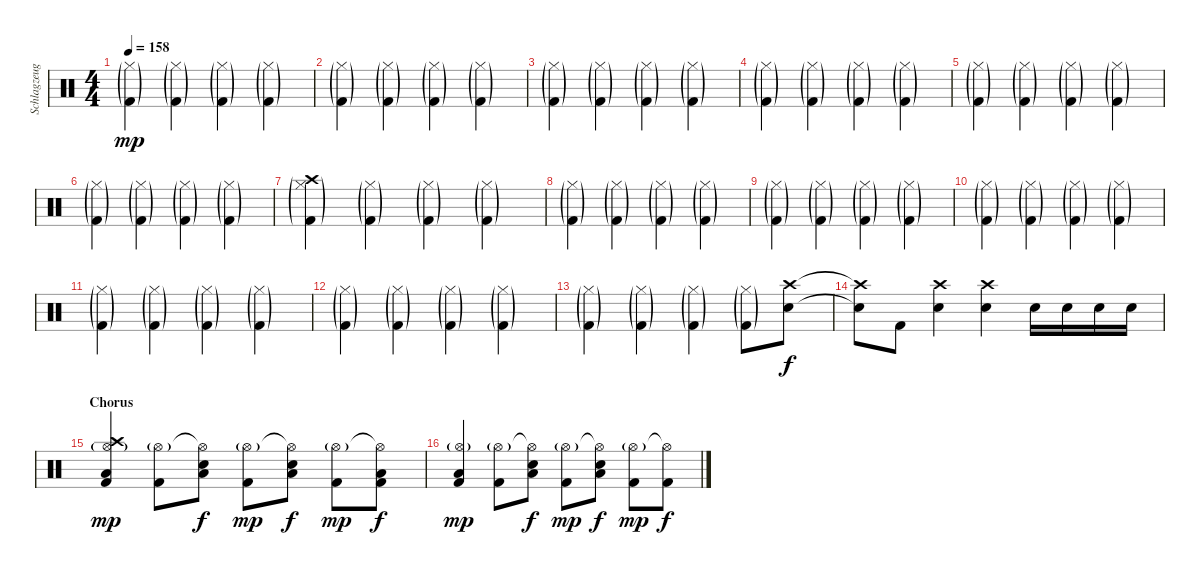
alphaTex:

\track ("Schlagzeug" "Schlagzeug") {instrument percussion}
\staff {score}
\articulation defaults
\ts (4 4)
\tempo 158
\clef neutral
\ks c
("Hi-Hat (closed)"{g} "Kick (hit) 2"{g}).4{dy mp} ("Hi-Hat (closed)"{g} "Kick (hit) 2"{g}).4 ("Hi-Hat (closed)"{g} "Kick (hit) 2"{g}).4 ("Hi-Hat (closed)"{g} "Kick (hit) 2"{g}).4 |
("Hi-Hat (closed)"{g} "Kick (hit) 2"{g}).4 ("Hi-Hat (closed)"{g} "Kick (hit) 2"{g}).4 ("Hi-Hat (closed)"{g} "Kick (hit) 2"{g}).4 ("Hi-Hat (closed)"{g} "Kick (hit) 2"{g}).4 |
("Hi-Hat (closed)"{g} "Kick (hit) 2"{g}).4 ("Hi-Hat (closed)"{g} "Kick (hit) 2"{g}).4 ("Hi-Hat (closed)"{g} "Kick (hit) 2"{g}).4 ("Hi-Hat (closed)"{g} "Kick (hit) 2"{g}).4 |
("Hi-Hat (closed)"{g} "Kick (hit) 2"{g}).4 ("Hi-Hat (closed)"{g} "Kick (hit) 2"{g}).4 ("Hi-Hat (closed)"{g} "Kick (hit) 2"{g}).4 ("Hi-Hat (closed)"{g} "Kick (hit) 2"{g}).4 |
("Hi-Hat (closed)"{g} "Kick (hit) 2"{g}).4 ("Hi-Hat (closed)"{g} "Kick (hit) 2"{g}).4 ("Hi-Hat (closed)"{g} "Kick (hit) 2"{g}).4 ("Hi-Hat (closed)"{g} "Kick (hit) 2"{g}).4 |
("Hi-Hat (closed)"{g} "Kick (hit) 2"{g}).4 ("Hi-Hat (closed)"{g} "Kick (hit) 2"{g}).4 ("Hi-Hat (closed)"{g} "Kick (hit) 2"{g}).4 ("Hi-Hat (closed)"{g} "Kick (hit) 2"{g}).4 |
("Crash high (hit)"{g} "Hi-Hat (closed)"{g} "Kick (hit) 2"{g}).4 ("Hi-Hat (closed)"{g} "Kick (hit) 2"{g}).4 ("Hi-Hat (closed)"{g} "Kick (hit) 2"{g}).4 ("Hi-Hat (closed)"{g} "Kick (hit) 2"{g}).4 |
("Hi-Hat (closed)"{g} "Kick (hit) 2"{g}).4 ("Hi-Hat (closed)"{g} "Kick (hit) 2"{g}).4 ("Hi-Hat (closed)"{g} "Kick (hit) 2"{g}).4 ("Hi-Hat (closed)"{g} "Kick (hit) 2"{g}).4 |
("Hi-Hat (closed)"{g} "Kick (hit) 2"{g}).4 ("Hi-Hat (closed)"{g} "Kick (hit) 2"{g}).4 ("Hi-Hat (closed)"{g} "Kick (hit) 2"{g}).4 ("Hi-Hat (closed)"{g} "Kick (hit) 2"{g}).4 |
("Hi-Hat (closed)"{g} "Kick (hit) 2"{g}).4 ("Hi-Hat (closed)"{g} "Kick (hit) 2"{g}).4 ("Hi-Hat (closed)"{g} "Kick (hit) 2"{g}).4 ("Hi-Hat (closed)"{g} "Kick (hit) 2"{g}).4 |
("Hi-Hat (closed)"{g} "Kick (hit) 2"{g}).4 ("Hi-Hat (closed)"{g} "Kick (hit) 2"{g}).4 ("Hi-Hat (closed)"{g} "Kick (hit) 2"{g}).4 ("Hi-Hat (closed)"{g} "Kick (hit) 2"{g}).4 |
("Hi-Hat (closed)"{g} "Kick (hit) 2"{g}).4 ("Hi-Hat (closed)"{g} "Kick (hit) 2"{g}).4 ("Hi-Hat (closed)"{g} "Kick (hit) 2"{g}).4 ("Hi-Hat (closed)"{g} "Kick (hit) 2"{g}).4 |
("Hi-Hat (closed)"{g} "Kick (hit) 2"{g}).4 ("Hi-Hat (closed)"{g} "Kick (hit) 2"{g}).4 ("Hi-Hat (closed)"{g} "Kick (hit) 2"{g}).4 ("Hi-Hat (closed)"{g} "Kick (hit) 2"{g}).8 ("Crash high (hit)" "Snare (hit) 2").8{dy f} |
("Crash high (hit)"{t} "Snare (hit) 2"{t}).8 "Kick (hit) 2".8 ("Crash high (hit)" "Snare (hit) 2").4 ("Crash high (hit)" "Snare (hit) 2").4 "Snare (hit) 2".16 "Snare (hit) 2".16 "Snare (hit) 2".16 "Snare (hit) 2".16 |
\section ("" "Chorus")
("Crash high (hit)" "Hi-Hat (open)"{g} "Low Floor Tom (hit)" "Kick (hit) 2").4{dy mp} ("Hi-Hat (open)"{g} "Kick (hit) 2").8 ("Hi-Hat (open)"{t} "Low Floor Tom (hit)" "Electric Snare (hit)").8{dy f} ("Hi-Hat (open)"{g} "Kick (hit) 2").8{dy mp} ("Hi-Hat (open)"{t} "Low Floor Tom (hit)" "Electric Snare (hit)").8{dy f} ("Hi-Hat (open)"{g} "Kick (hit) 2").8{dy mp} ("Hi-Hat (open)"{t} "Low Floor Tom (hit)" "Kick (hit) 2").8{dy f} |
("Hi-Hat (open)"{g} "Low Floor Tom (hit)" "Kick (hit) 2").4{dy mp} ("Hi-Hat (open)"{g} "Kick (hit) 2").8 ("Hi-Hat (open)"{t} "Low Floor Tom (hit)" "Electric Snare (hit)").8{dy f} ("Hi-Hat (open)"{g} "Kick (hit) 2").8{dy mp} ("Hi-Hat (open)"{t} "Low Floor Tom (hit)" "Electric Snare (hit)").8{dy f} ("Hi-Hat (open)"{g} "Kick (hit) 2").8{dy mp} ("Hi-Hat (open)"{t} "Kick (hit) 2").8{dy f}
